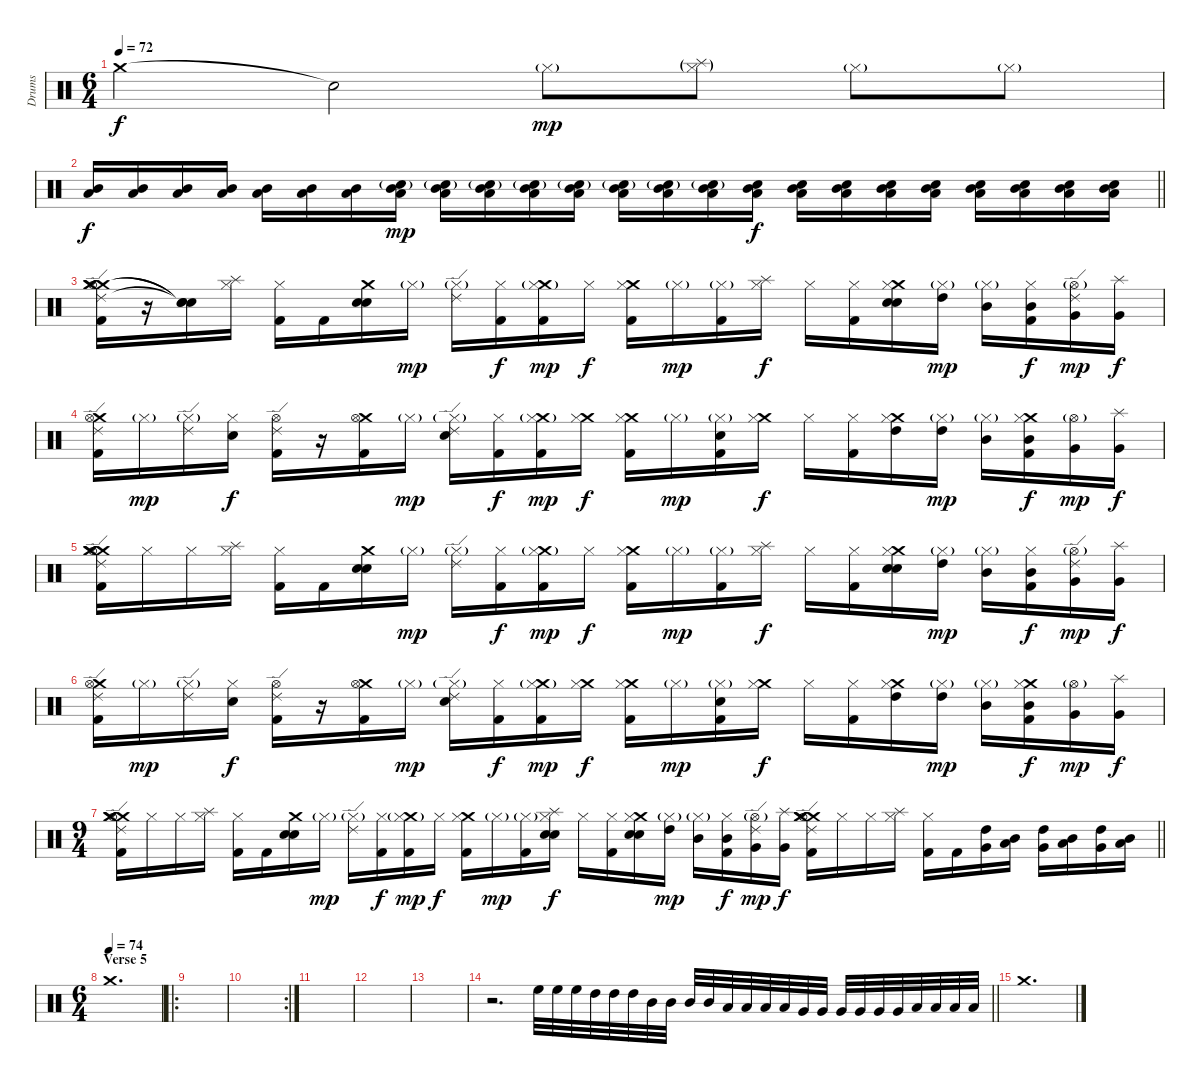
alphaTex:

\track ("Drums" "Drums") {instrument percussion}
\staff {score}
\articulation defaults
\ts (6 4)
\tempo 72
\clef neutral
\ks c "Crash medium (hit)".2{dy f} "Snare (hit)"{t}.2 "Hi-Hat (closed)"{g}.8{dy mp}
("Splash (hit)"{g} "Hi-Hat (closed)"{g}).8 "Hi-Hat (closed)"{g}.8 "Hi-Hat (closed)"{g}.8{volume 3} |
\barLineRight lightlight
("Mid Tom (hit)" "Low Floor Tom (hit)").16{dy f volume 13} ("Mid Tom (hit)" "Low Floor Tom (hit)").16 ("Mid Tom (hit)" "Low Floor Tom (hit)").16 ("Mid Tom (hit)" "Low Floor Tom (hit)").16 ("Mid Tom (hit)" "Low Floor Tom (hit)").16 ("Mid Tom (hit)" "Low Floor Tom (hit)").16 ("Mid Tom (hit)" "Low Floor Tom (hit)").16 ("Electric Snare (hit)"{g} "Mid Tom (hit)" "Low Floor Tom (hit)").16{dy mp} ("Electric Snare (hit)"{g} "Mid Tom (hit)" "Low Floor Tom (hit)").16 ("Electric Snare (hit)"{g} "Mid Tom (hit)" "Low Floor Tom (hit)").16 ("Electric Snare (hit)"{g} "Mid Tom (hit)" "Low Floor Tom (hit)").16 ("Electric Snare (hit)"{g} "Mid Tom (hit)" "Low Floor Tom (hit)").16 ("Electric Snare (hit)"{g} "Mid Tom (hit)" "Low Floor Tom (hit)").16 ("Electric Snare (hit)"{g} "Mid Tom (hit)" "Low Floor Tom (hit)").16 ("Electric Snare (hit)"{g} "Mid Tom (hit)" "Low Floor Tom (hit)").16 ("Electric Snare (hit)" "Mid Tom (hit)" "Low Floor Tom (hit)").16{dy f} ("Electric Snare (hit)" "Mid Tom (hit)" "Low Floor Tom (hit)").16 ("Electric Snare (hit)" "Mid Tom (hit)" "Low Floor Tom (hit)").16 ("Electric Snare (hit)" "Mid Tom (hit)" "Low Floor Tom (hit)").16 ("Electric Snare (hit)" "Mid Tom (hit)" "Low Floor Tom (hit)").16 ("Electric Snare (hit)" "Mid Tom (hit)" "Low Floor Tom (hit)").16 ("Electric Snare (hit)" "Mid Tom (hit)" "Low Floor Tom (hit)").16 ("Electric Snare (hit)" "Mid Tom (hit)" "Low Floor Tom (hit)").16 ("Electric Snare (hit)" "Mid Tom (hit)" "Low Floor Tom (hit)").16 |
\section ("" "")
("Crash medium (hit)" "Hi-Hat (open)" "Ride (edge) 2" "Kick (hit) 2" "Crash medium (hit)" "Crash medium (hit)").16 r.16 ("Snare (hit)"{t} "Snare (hit)"{t} "Snare (hit)"{t}).16 ("Splash (hit)" "Hi-Hat (closed)").16 ("Hi-Hat (closed)" "Kick (hit) 2").16 "Kick (hit) 2".16 ("Crash medium (hit)" "Electric Snare (hit)" "Electric Snare (hit)").16 "Hi-Hat (closed)"{g}.16{dy mp} ("Ride (edge) 2" "Hi-Hat (closed)"{g}).16 ("Hi-Hat (closed)" "Kick (hit) 2").16{dy f} ("Crash medium (hit)" "Hi-Hat (closed)"{g} "Kick (hit) 2").16{dy mp} "Hi-Hat (closed)".16{dy f} ("Crash medium (hit)" "Hi-Hat (closed)" "Kick (hit) 2").16 "Hi-Hat (closed)"{g}.16{dy mp} ("Hi-Hat (closed)"{g} "Kick (hit) 2").16 ("Splash (hit)" "Hi-Hat (closed)").16{dy f} "Hi-Hat (closed)".16 ("Hi-Hat (closed)" "Kick (hit) 2").16 ("Crash medium (hit)" "Hi-Hat (closed)" "Electric Snare (hit)" "Electric Snare (hit)").16 ("Hi-Hat (closed)"{g} "High Tom (hit)").16{dy mp} ("Hi-Hat (closed)"{g} "Mid Tom (hit)").16 ("Hi-Hat (closed)" "Mid Tom (hit)" "Kick (hit) 2").16{dy f} ("Ride (edge) 2" "Hi-Hat (open)"{g} "Very Low Tom (hit)").16{dy mp} ("Splash (hit)" "Very Low Tom (hit)").16{dy f} |
("Crash medium (hit)" "Hi-Hat (open)" "Ride (edge) 2" "Kick (hit) 2").16 "Hi-Hat (closed)"{g}.16{dy mp} ("Hi-Hat (closed)"{g} "Ride (edge) 2").16 ("Hi-Hat (closed)" "Electric Snare (hit)").16{dy f} ("Ride (edge) 2" "Hi-Hat (open)" "Kick (hit) 2").16 r.16 ("Crash medium (hit)" "Hi-Hat (open)" "Kick (hit) 2").16 "Hi-Hat (closed)"{g}.16{dy mp} ("Ride (edge) 2" "Hi-Hat (closed)"{g} "Electric Snare (hit)").16 ("Hi-Hat (closed)" "Kick (hit) 2").16{dy f} ("Crash medium (hit)" "Hi-Hat (closed)"{g} "Kick (hit) 2").16{dy mp} ("Crash medium (hit)" "Hi-Hat (closed)").16{dy f} ("Crash medium (hit)" "Hi-Hat (closed)" "Kick (hit) 2").16 "Hi-Hat (closed)"{g}.16{dy mp} ("Hi-Hat (closed)"{g} "Electric Snare (hit)" "Kick (hit) 2").16 ("Crash medium (hit)" "Hi-Hat (closed)").16{dy f} "Hi-Hat (closed)".16 ("Hi-Hat (closed)" "Kick (hit) 2").16 ("Crash medium (hit)" "Hi-Hat (closed)" "High Tom (hit)").16 ("Hi-Hat (closed)"{g} "High Tom (hit)").16{dy mp} ("Hi-Hat (closed)"{g} "Mid Tom (hit)").16 ("Crash medium (hit)" "Hi-Hat (closed)" "Mid Tom (hit)" "Kick (hit) 2").16{dy f} ("Hi-Hat (open)"{g} "Very Low Tom (hit)").16{dy mp} ("Splash (hit)" "Very Low Tom (hit)").16{dy f} |
("Crash medium (hit)" "Hi-Hat (open)" "Ride (edge) 2" "Kick (hit) 2" "Crash medium (hit)" "Crash medium (hit)").16 "Hi-Hat (closed)".16 "Hi-Hat (closed)".16 ("Splash (hit)" "Hi-Hat (closed)").16 ("Hi-Hat (closed)" "Kick (hit) 2").16 "Kick (hit) 2".16 ("Crash medium (hit)" "Electric Snare (hit)" "Electric Snare (hit)").16 "Hi-Hat (closed)"{g}.16{dy mp} ("Ride (edge) 2" "Hi-Hat (closed)"{g}).16 ("Hi-Hat (closed)" "Kick (hit) 2").16{dy f} ("Crash medium (hit)" "Hi-Hat (closed)"{g} "Kick (hit) 2").16{dy mp} "Hi-Hat (closed)".16{dy f} ("Crash medium (hit)" "Hi-Hat (closed)" "Kick (hit) 2").16 "Hi-Hat (closed)"{g}.16{dy mp} ("Hi-Hat (closed)"{g} "Kick (hit) 2").16 ("Splash (hit)" "Hi-Hat (closed)").16{dy f} "Hi-Hat (closed)".16 ("Hi-Hat (closed)" "Kick (hit) 2").16 ("Crash medium (hit)" "Hi-Hat (closed)" "Electric Snare (hit)" "Electric Snare (hit)").16 ("Hi-Hat (closed)"{g} "High Tom (hit)").16{dy mp} ("Hi-Hat (closed)"{g} "Mid Tom (hit)").16 ("Hi-Hat (closed)" "Mid Tom (hit)" "Kick (hit) 2").16{dy f} ("Ride (edge) 2" "Hi-Hat (open)"{g} "Very Low Tom (hit)").16{dy mp} ("Splash (hit)" "Very Low Tom (hit)").16{dy f} |
("Crash medium (hit)" "Hi-Hat (open)" "Ride (edge) 2" "Kick (hit) 2").16 "Hi-Hat (closed)"{g}.16{dy mp} ("Hi-Hat (closed)"{g} "Ride (edge) 2").16 ("Hi-Hat (closed)" "Electric Snare (hit)").16{dy f} ("Ride (edge) 2" "Hi-Hat (open)" "Kick (hit) 2").16 r.16 ("Crash medium (hit)" "Hi-Hat (open)" "Kick (hit) 2").16 "Hi-Hat (closed)"{g}.16{dy mp} ("Ride (edge) 2" "Hi-Hat (closed)"{g} "Electric Snare (hit)").16 ("Hi-Hat (closed)" "Kick (hit) 2").16{dy f} ("Crash medium (hit)" "Hi-Hat (closed)"{g} "Kick (hit) 2").16{dy mp} ("Crash medium (hit)" "Hi-Hat (closed)").16{dy f} ("Crash medium (hit)" "Hi-Hat (closed)" "Kick (hit) 2").16 "Hi-Hat (closed)"{g}.16{dy mp} ("Hi-Hat (closed)"{g} "Electric Snare (hit)" "Kick (hit) 2").16 ("Crash medium (hit)" "Hi-Hat (closed)").16{dy f} "Hi-Hat (closed)".16 ("Hi-Hat (closed)" "Kick (hit) 2").16 ("Crash medium (hit)" "Hi-Hat (closed)" "High Tom (hit)").16 ("Hi-Hat (closed)"{g} "High Tom (hit)").16{dy mp} ("Hi-Hat (closed)"{g} "Mid Tom (hit)").16 ("Crash medium (hit)" "Hi-Hat (closed)" "Mid Tom (hit)" "Kick (hit) 2").16{dy f} ("Hi-Hat (open)"{g} "Very Low Tom (hit)").16{dy mp} ("Splash (hit)" "Very Low Tom (hit)").16{dy f} |
\ts (9 4)
\barLineRight lightlight
("Crash medium (hit)" "Hi-Hat (open)" "Ride (edge) 2" "Kick (hit) 2" "Crash medium (hit)" "Crash medium (hit)").16 "Hi-Hat (closed)".16 "Hi-Hat (closed)".16 ("Splash (hit)" "Hi-Hat (closed)").16 ("Hi-Hat (closed)" "Kick (hit) 2").16 "Kick (hit) 2".16 ("Crash medium (hit)" "Electric Snare (hit)" "Electric Snare (hit)").16 "Hi-Hat (closed)"{g}.16{dy mp} ("Ride (edge) 2" "Hi-Hat (closed)"{g}).16 ("Hi-Hat (closed)" "Kick (hit) 2").16{dy f} ("Crash medium (hit)" "Hi-Hat (closed)"{g} "Kick (hit) 2").16{dy mp} "Hi-Hat (closed)".16{dy f} ("Crash medium (hit)" "Hi-Hat (closed)" "Kick (hit) 2").16 "Hi-Hat (closed)"{g}.16{dy mp} ("Hi-Hat (closed)"{g} "Kick (hit) 2").16 ("Splash (hit)" "Hi-Hat (closed)" "Electric Snare (hit)" "Electric Snare (hit)").16{dy f} "Hi-Hat (closed)".16 ("Hi-Hat (closed)" "Kick (hit) 2").16 ("Crash medium (hit)" "Hi-Hat (closed)" "Electric Snare (hit)" "Electric Snare (hit)").16 ("Hi-Hat (closed)"{g} "High Tom (hit)").16{dy mp} ("Hi-Hat (closed)"{g} "Mid Tom (hit)").16 ("Hi-Hat (closed)" "Mid Tom (hit)" "Kick (hit) 2").16{dy f} ("Ride (edge) 2" "Hi-Hat (open)"{g} "Very Low Tom (hit)").16{dy mp} ("Splash (hit)" "Very Low Tom (hit)").16{dy f} ("Crash medium (hit)" "Hi-Hat (open)" "Ride (edge) 2" "Kick (hit) 2" "Crash medium (hit)" "Crash medium (hit)").16 "Hi-Hat (closed)".16 "Hi-Hat (closed)".16 ("Splash (hit)" "Hi-Hat (closed)").16 ("Hi-Hat (closed)" "Kick (hit) 2").16 "Kick (hit) 2".16 ("High Tom (hit)" "Very Low Tom (hit)").16 ("Mid Tom (hit)" "Low Floor Tom (hit)").16 ("High Tom (hit)" "Very Low Tom (hit)").16 ("Mid Tom (hit)" "Low Floor Tom (hit)").16 ("High Tom (hit)" "Very Low Tom (hit)").16 ("Mid Tom (hit)" "Low Floor Tom (hit)").16 |
\ts (6 4)
\section ("" "Verse 5")
\tempo (74)
"Crash medium (hit)".1{d} |
\ro
|
\rc 2
|
|
|
|
\barLineRight lightlight
r.2{d} "High Floor Tom (hit)".32{volume 7} "High Floor Tom (hit)".32{volume 13} "High Floor Tom (hit)".32 "High Tom (hit)".32 "High Tom (hit)".32 "High Tom (hit)".32 "Mid Tom (hit)".32 "Mid Tom (hit)".32 "Mid Tom (hit)".32 "Mid Tom (hit)".32 "Low Tom (hit)".32 "Low Tom (hit)".32 "Low Tom (hit)".32 "Low Tom (hit)".32 "Very Low Tom (hit)".32 "Very Low Tom (hit)".32 "Very Low Tom (hit)".32 "Very Low Tom (hit)".32 "Very Low Tom (hit)".32 "Very Low Tom (hit)".32 "Low Floor Tom (hit)".32 "Low Floor Tom (hit)".32 "Low Floor Tom (hit)".32 "Low Floor Tom (hit)".32 |
\section ("" "")
"Crash medium (hit)".1{d}
